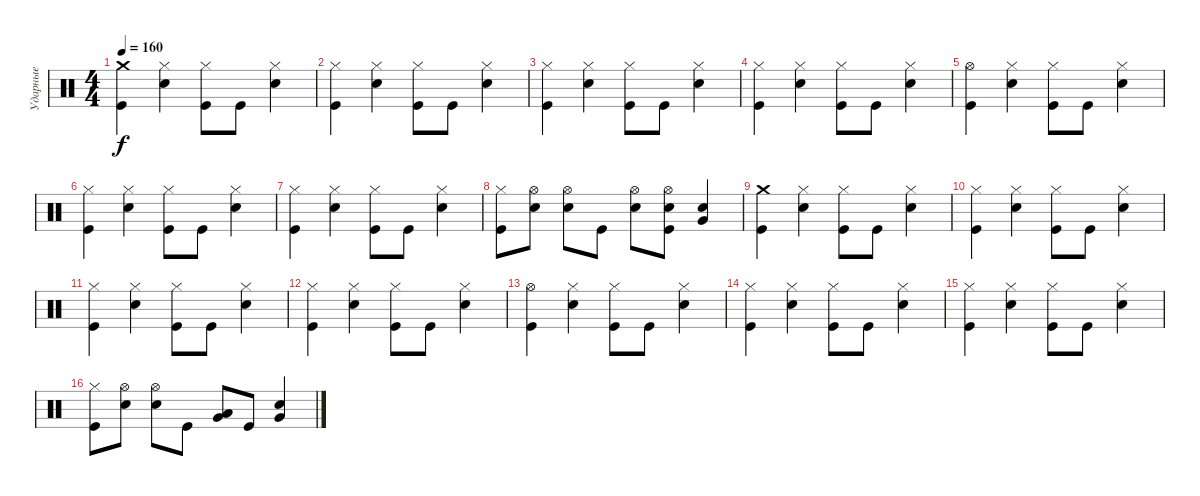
\track ("Ударные" "Ударные") {instrument percussion}
\staff {score}
\articulation defaults
\ts (4 4)
\tempo 160
\clef neutral
\ks c
("Kick (hit)" "Crash medium (hit)").4{dy f} ("Electric Snare (hit)" "Hi-Hat (closed)").4 ("Kick (hit)" "Hi-Hat (closed)").8 "Kick (hit)".8 ("Electric Snare (hit)" "Hi-Hat (closed)").4 |
("Kick (hit)" "Hi-Hat (closed)").4 ("Electric Snare (hit)" "Hi-Hat (closed)").4 ("Kick (hit)" "Hi-Hat (closed)").8 "Kick (hit)".8 ("Electric Snare (hit)" "Hi-Hat (closed)").4 |
("Kick (hit)" "Hi-Hat (closed)").4 ("Electric Snare (hit)" "Hi-Hat (closed)").4 ("Kick (hit)" "Hi-Hat (closed)").8 "Kick (hit)".8 ("Electric Snare (hit)" "Hi-Hat (closed)").4 |
("Kick (hit)" "Hi-Hat (closed)").4 ("Electric Snare (hit)" "Hi-Hat (closed)").4 ("Kick (hit)" "Hi-Hat (closed)").8 "Kick (hit)".8 ("Electric Snare (hit)" "Hi-Hat (closed)").4 |
("Kick (hit)" "Hi-Hat (open)").4 ("Electric Snare (hit)" "Hi-Hat (closed)").4 ("Kick (hit)" "Hi-Hat (closed)").8 "Kick (hit)".8 ("Electric Snare (hit)" "Hi-Hat (closed)").4 |
("Kick (hit)" "Hi-Hat (closed)").4 ("Electric Snare (hit)" "Hi-Hat (closed)").4 ("Kick (hit)" "Hi-Hat (closed)").8 "Kick (hit)".8 ("Electric Snare (hit)" "Hi-Hat (closed)").4 |
("Kick (hit)" "Hi-Hat (closed)").4 ("Electric Snare (hit)" "Hi-Hat (closed)").4 ("Kick (hit)" "Hi-Hat (closed)").8 "Kick (hit)".8 ("Electric Snare (hit)" "Hi-Hat (closed)").4 |
("Kick (hit)" "Hi-Hat (closed)").8 ("Electric Snare (hit)" "Hi-Hat (open)").8 ("Electric Snare (hit)" "Hi-Hat (open)").8 "Kick (hit)".8 ("Electric Snare (hit)" "Hi-Hat (open)").8 ("Kick (hit)" "Electric Snare (hit)" "Hi-Hat (open)").8 ("Electric Snare (hit)" "Very Low Tom (hit)").4 |
("Kick (hit)" "Crash medium (hit)").4 ("Electric Snare (hit)" "Hi-Hat (closed)").4 ("Kick (hit)" "Hi-Hat (closed)").8 "Kick (hit)".8 ("Electric Snare (hit)" "Hi-Hat (closed)").4 |
("Kick (hit)" "Hi-Hat (closed)").4 ("Electric Snare (hit)" "Hi-Hat (closed)").4 ("Kick (hit)" "Hi-Hat (closed)").8 "Kick (hit)".8 ("Electric Snare (hit)" "Hi-Hat (closed)").4 |
("Kick (hit)" "Hi-Hat (closed)").4 ("Electric Snare (hit)" "Hi-Hat (closed)").4 ("Kick (hit)" "Hi-Hat (closed)").8 "Kick (hit)".8 ("Electric Snare (hit)" "Hi-Hat (closed)").4 |
("Kick (hit)" "Hi-Hat (closed)").4 ("Electric Snare (hit)" "Hi-Hat (closed)").4 ("Kick (hit)" "Hi-Hat (closed)").8 "Kick (hit)".8 ("Electric Snare (hit)" "Hi-Hat (closed)").4 |
("Kick (hit)" "Hi-Hat (open)").4 ("Electric Snare (hit)" "Hi-Hat (closed)").4 ("Kick (hit)" "Hi-Hat (closed)").8 "Kick (hit)".8 ("Electric Snare (hit)" "Hi-Hat (closed)").4 |
("Kick (hit)" "Hi-Hat (closed)").4 ("Electric Snare (hit)" "Hi-Hat (closed)").4 ("Kick (hit)" "Hi-Hat (closed)").8 "Kick (hit)".8 ("Electric Snare (hit)" "Hi-Hat (closed)").4 |
("Kick (hit)" "Hi-Hat (closed)").4 ("Electric Snare (hit)" "Hi-Hat (closed)").4 ("Kick (hit)" "Hi-Hat (closed)").8 "Kick (hit)".8 ("Electric Snare (hit)" "Hi-Hat (closed)").4 |
("Kick (hit)" "Hi-Hat (closed)").8 ("Electric Snare (hit)" "Hi-Hat (open)").8 ("Electric Snare (hit)" "Hi-Hat (open)").8 "Kick (hit)".8 ("Very Low Tom (hit)" "Low Floor Tom (hit)").8 "Kick (hit)".8 ("Electric Snare (hit)" "Very Low Tom (hit)").4
